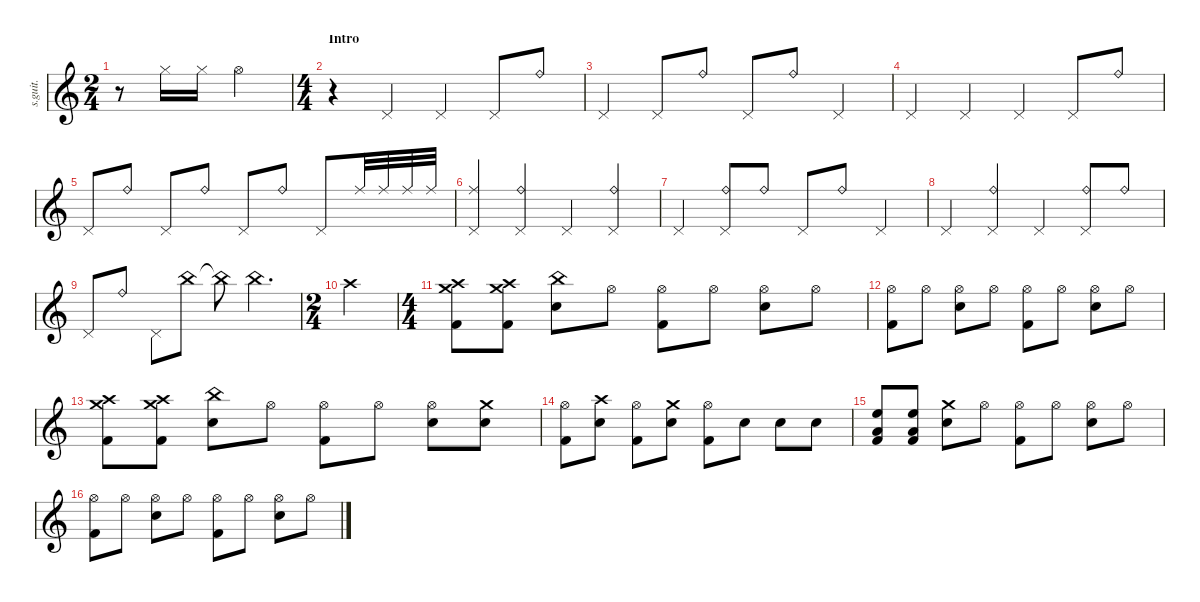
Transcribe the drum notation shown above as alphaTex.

\defaultSystemsLayout 4
\hideDynamics
\bracketExtendMode nobrackets
\track ("Mountain" "s.guit.") {instrument percussion}
\staff {score}
\articulation defaults
\ts (2 4)
\beaming (8 2 2 2 2)
\tempo (88 hide)
\clef g2
\ks c
r.8{dy f} "Hi-Hat (closed)".16 "Hi-Hat (closed)".16 "Hi-Hat (open)".4 |
\ts (4 4)
\beaming (8 2 2 2 2)
\section ("" "Intro")
r.4 "Pedal Hi-Hat (hit)".4 "Pedal Hi-Hat (hit)".4 "Pedal Hi-Hat (hit)".8 "Ride (bell)".8 |
"Pedal Hi-Hat (hit)".4 "Pedal Hi-Hat (hit)".8 "Ride (bell)".8 "Pedal Hi-Hat (hit)".8 "Ride (bell)".8 "Pedal Hi-Hat (hit)".4 |
"Pedal Hi-Hat (hit)".4 "Pedal Hi-Hat (hit)".4 "Pedal Hi-Hat (hit)".4 "Pedal Hi-Hat (hit)".8 "Ride (bell)".8 |
"Pedal Hi-Hat (hit)".8 "Ride (bell)".8 "Pedal Hi-Hat (hit)".8 "Ride (bell)".8 "Pedal Hi-Hat (hit)".8 "Ride (bell)".8 "Pedal Hi-Hat (hit)".8 "Ride (middle)".32 "Ride (middle)".32 "Ride (middle)".32 "Ride (middle)".32 |
("Ride (middle)" "Pedal Hi-Hat (hit)").4 ("Ride (bell)" "Pedal Hi-Hat (hit)").4 "Pedal Hi-Hat (hit)".4 ("Ride (bell)" "Pedal Hi-Hat (hit)").4 |
"Pedal Hi-Hat (hit)".4 ("Ride (bell)" "Pedal Hi-Hat (hit)").8 "Ride (bell)".8 "Pedal Hi-Hat (hit)".8 "Ride (bell)".8 "Pedal Hi-Hat (hit)".4 |
"Pedal Hi-Hat (hit)".4 ("Ride (bell)" "Pedal Hi-Hat (hit)").4 "Pedal Hi-Hat (hit)".4 ("Ride (bell)" "Pedal Hi-Hat (hit)").8 "Ride (bell)".8 |
"Pedal Hi-Hat (hit)".8 "Ride (bell)".8 "Pedal Hi-Hat (hit)".8 "China (hit)".8 "China (hit)"{t}.8 "China (hit)".4{d} |
\ts (2 4)
\beaming (8 2 2 2 2)
"Crash high (hit)".2 |
\ts (4 4)
\beaming (8 2 2 2 2)
("Crash medium (hit)" "Crash high (hit)" "Kick (hit) 2").8 ("Crash medium (hit)" "Crash high (hit)" "Kick (hit) 2").8 ("China (hit)" "Snare (hit) 2").8 "Hi-Hat (open)".8 ("Hi-Hat (open)" "Kick (hit) 2").8 "Hi-Hat (open)".8 ("Hi-Hat (open)" "Snare (hit) 2").8 "Hi-Hat (open)".8 |
("Hi-Hat (open)" "Kick (hit) 2").8 "Hi-Hat (open)".8 ("Hi-Hat (open)" "Snare (hit) 2").8 "Hi-Hat (open)".8 ("Hi-Hat (open)" "Kick (hit) 2").8 "Hi-Hat (open)".8 ("Hi-Hat (open)" "Snare (hit) 2").8 "Hi-Hat (open)".8 |
("Crash medium (hit)" "Crash high (hit)" "Kick (hit) 2").8 ("Crash medium (hit)" "Crash high (hit)" "Kick (hit) 2").8 ("China (hit)" "Snare (hit) 2").8 "Hi-Hat (open)".8 ("Hi-Hat (open)" "Kick (hit) 2").8 "Hi-Hat (open)".8 ("Hi-Hat (open)" "Snare (hit) 2").8 ("Crash medium (hit)" "Snare (hit) 2").8 |
("Hi-Hat (open)" "Kick (hit) 2").8 ("Crash high (hit)" "Snare (hit) 2").8 ("Hi-Hat (open)" "Kick (hit) 2").8 ("Crash medium (hit)" "Snare (hit) 2").8 ("Hi-Hat (open)" "Kick (hit) 2").8 "Snare (hit) 2".8 "Snare (hit) 2".8 "Snare (hit) 2".8 |
("High Floor Tom (hit)" "Low Tom (hit)" "Kick (hit) 2").8 ("High Floor Tom (hit)" "Low Tom (hit)" "Kick (hit) 2").8 ("Crash medium (hit)" "Snare (hit) 2").8 "Hi-Hat (open)".8 ("Hi-Hat (open)" "Kick (hit) 2").8 "Hi-Hat (open)".8 ("Hi-Hat (open)" "Snare (hit) 2").8 "Hi-Hat (open)".8 |
("Hi-Hat (open)" "Kick (hit) 2").8 "Hi-Hat (open)".8 ("Hi-Hat (open)" "Snare (hit) 2").8 "Hi-Hat (open)".8 ("Hi-Hat (open)" "Kick (hit) 2").8 "Hi-Hat (open)".8 ("Hi-Hat (open)" "Snare (hit) 2").8 "Hi-Hat (open)".8
